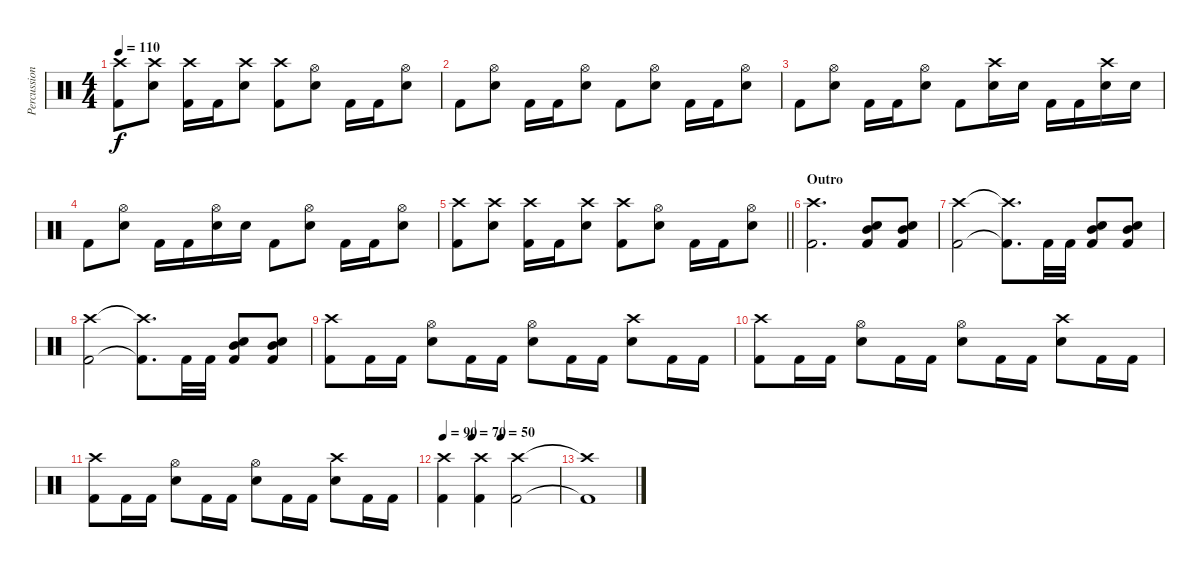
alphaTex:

\track ("Percussion" "Percussion") {instrument percussion}
\staff {score}
\articulation defaults
\ts (4 4)
\tempo 110
\clef neutral
\ks c
("Kick (hit) 2" "Crash high (hit)").8{dy f} ("Electric Snare (hit)" "Crash high (hit)").8 ("Kick (hit) 2" "Crash high (hit)").16 "Kick (hit) 2".16 ("Electric Snare (hit)" "Crash high (hit)").8 ("Kick (hit) 2" "Crash high (hit)").8 ("Electric Snare (hit)" "Hi-Hat (open)").8 "Kick (hit) 2".16 "Kick (hit) 2".16 ("Electric Snare (hit)" "Hi-Hat (open)").8 |
"Kick (hit) 2".8 ("Electric Snare (hit)" "Hi-Hat (open)").8 "Kick (hit) 2".16 "Kick (hit) 2".16 ("Electric Snare (hit)" "Hi-Hat (open)").8 "Kick (hit) 2".8 ("Electric Snare (hit)" "Hi-Hat (open)").8 "Kick (hit) 2".16 "Kick (hit) 2".16 ("Electric Snare (hit)" "Hi-Hat (open)").8 |
"Kick (hit) 2".8 ("Electric Snare (hit)" "Hi-Hat (open)").8 "Kick (hit) 2".16 "Kick (hit) 2".16 ("Electric Snare (hit)" "Hi-Hat (open)").8 "Kick (hit) 2".8 ("Electric Snare (hit)" "Crash high (hit)").16 "Electric Snare (hit)".16 "Kick (hit) 2".16 "Kick (hit) 2".16 ("Electric Snare (hit)" "Crash high (hit)").16 "Electric Snare (hit)".16 |
"Kick (hit) 2".8 ("Electric Snare (hit)" "Hi-Hat (open)").8 "Kick (hit) 2".16 "Kick (hit) 2".16 ("Electric Snare (hit)" "Hi-Hat (open)").16 "Electric Snare (hit)".16 "Kick (hit) 2".8 ("Electric Snare (hit)" "Hi-Hat (open)").8 "Kick (hit) 2".16 "Kick (hit) 2".16 ("Electric Snare (hit)" "Hi-Hat (open)").8 |
\barLineRight lightlight
("Kick (hit) 2" "Crash high (hit)").8 ("Electric Snare (hit)" "Crash high (hit)").8 ("Kick (hit) 2" "Crash high (hit)").16 "Kick (hit) 2".16 ("Electric Snare (hit)" "Crash high (hit)").8 ("Kick (hit) 2" "Crash high (hit)").8 ("Electric Snare (hit)" "Hi-Hat (open)").8 "Kick (hit) 2".16 "Kick (hit) 2".16 ("Electric Snare (hit)" "Hi-Hat (open)").8 |
\section ("" "Outro")
("Kick (hit) 2" "Crash high (hit)").2{d} ("Kick (hit) 2" "Electric Snare (hit)" "Mid Tom (hit)").8 ("Kick (hit) 2" "Electric Snare (hit)" "Mid Tom (hit)").8 |
("Kick (hit) 2" "Crash high (hit)").2 ("Kick (hit) 2"{t} "Crash high (hit)"{t}).8{d} "Kick (hit) 2".32 "Kick (hit) 2".32 ("Kick (hit) 2" "Electric Snare (hit)" "Mid Tom (hit)").8 ("Kick (hit) 2" "Electric Snare (hit)" "Mid Tom (hit)").8 |
("Kick (hit) 2" "Crash high (hit)").2 ("Kick (hit) 2"{t} "Crash high (hit)"{t}).8{d} "Kick (hit) 2".32 "Kick (hit) 2".32 ("Kick (hit) 2" "Electric Snare (hit)" "Mid Tom (hit)").8 ("Kick (hit) 2" "Electric Snare (hit)" "Mid Tom (hit)").8 |
("Kick (hit) 2" "Crash high (hit)").8 "Kick (hit) 2".16 "Kick (hit) 2".16 ("Electric Snare (hit)" "Hi-Hat (open)").8 "Kick (hit) 2".16 "Kick (hit) 2".16 ("Electric Snare (hit)" "Hi-Hat (open)").8 "Kick (hit) 2".16 "Kick (hit) 2".16 ("Electric Snare (hit)" "Crash high (hit)").8 "Kick (hit) 2".16 "Kick (hit) 2".16 |
("Kick (hit) 2" "Crash high (hit)").8 "Kick (hit) 2".16 "Kick (hit) 2".16 ("Electric Snare (hit)" "Hi-Hat (open)").8 "Kick (hit) 2".16 "Kick (hit) 2".16 ("Electric Snare (hit)" "Hi-Hat (open)").8 "Kick (hit) 2".16 "Kick (hit) 2".16 ("Electric Snare (hit)" "Crash high (hit)").8 "Kick (hit) 2".16 "Kick (hit) 2".16 |
("Kick (hit) 2" "Crash high (hit)").8 "Kick (hit) 2".16 "Kick (hit) 2".16 ("Electric Snare (hit)" "Hi-Hat (open)").8 "Kick (hit) 2".16 "Kick (hit) 2".16 ("Electric Snare (hit)" "Hi-Hat (open)").8 "Kick (hit) 2".16 "Kick (hit) 2".16 ("Electric Snare (hit)" "Crash high (hit)").8 "Kick (hit) 2".16 "Kick (hit) 2".16 |
\tempo 90
\tempo (70 0.25)
\tempo (50 0.5)
("Kick (hit) 2" "Crash high (hit)").4 ("Kick (hit) 2" "Crash high (hit)").4 ("Kick (hit) 2" "Crash high (hit)").2 |
("Kick (hit) 2"{t} "Crash high (hit)"{t}).1
